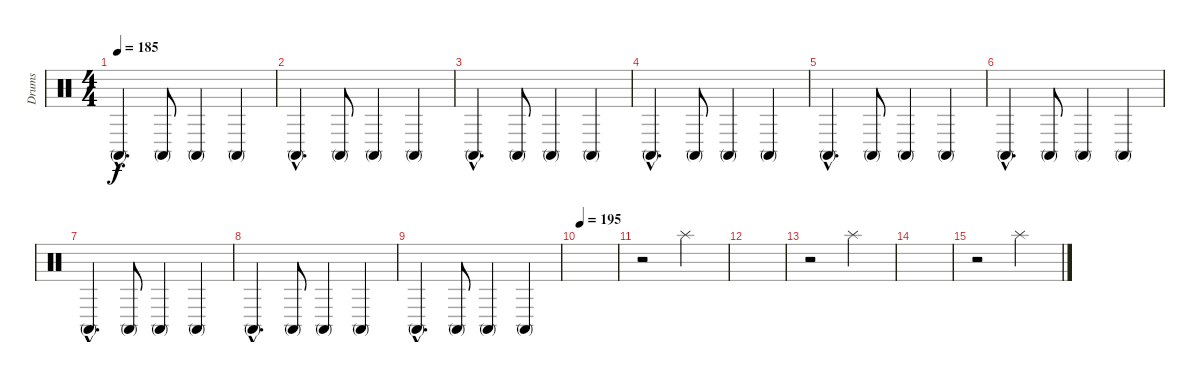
\track ("Drums" "Drums") {instrument percussion}
\staff {score}
\articulation defaults
\ts (4 4)
\tempo 185
\clef neutral
\ks c "Conga high (mute)"{hac}.4{d dy f} "Conga high (mute)".8 "Conga high (mute)".4 "Conga high (mute)".4
|
"Conga high (mute)"{hac}.4{d} "Conga high (mute)".8 "Conga high (mute)".4 "Conga high (mute)".4 |
"Conga high (mute)"{hac}.4{d} "Conga high (mute)".8 "Conga high (mute)".4 "Conga high (mute)".4 |
"Conga high (mute)"{hac}.4{d} "Conga high (mute)".8 "Conga high (mute)".4 "Conga high (mute)".4 |
"Conga high (mute)"{hac}.4{d} "Conga high (mute)".8 "Conga high (mute)".4 "Conga high (mute)".4 |
"Conga high (mute)"{hac}.4{d} "Conga high (mute)".8 "Conga high (mute)".4 "Conga high (mute)".4 |
"Conga high (mute)"{hac}.4{d} "Conga high (mute)".8 "Conga high (mute)".4 "Conga high (mute)".4 |
"Conga high (mute)"{hac}.4{d} "Conga high (mute)".8 "Conga high (mute)".4 "Conga high (mute)".4 |
"Conga high (mute)"{hac}.4{d} "Conga high (mute)".8 "Conga high (mute)".4 "Conga high (mute)".4 |
\tempo 195
|
r.2 "Splash (hit)".2 |
|
r.2 "Splash (hit)".2 |
|
r.2 "Splash (hit)".2
